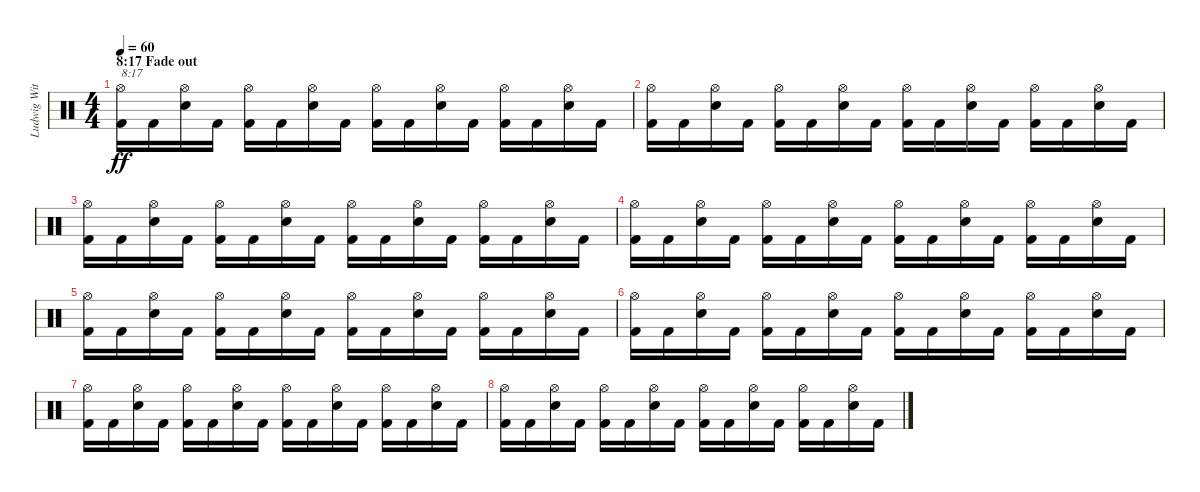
\track ("Ludwig Witt (Drums)" "Ludwig Wit") {instrument percussion}
\staff
\articulation defaults
\ts (4 4)
\section ("" "8:17 Fade out")
\tempo 60
\clef neutral
\ks c
("Hi-Hat (open)" "Kick (hit) 2").16{txt "8:17" dy ff volume 10} "Kick (hit) 2".16 ("Hi-Hat (open)" "Electric Snare (hit)").16 "Kick (hit) 2".16 ("Hi-Hat (open)" "Kick (hit) 2").16 "Kick (hit) 2".16 ("Hi-Hat (open)" "Electric Snare (hit)").16 "Kick (hit) 2".16 ("Hi-Hat (open)" "Kick (hit) 2").16 "Kick (hit) 2".16 ("Hi-Hat (open)" "Electric Snare (hit)").16 "Kick (hit) 2".16 ("Hi-Hat (open)" "Kick (hit) 2").16 "Kick (hit) 2".16 ("Hi-Hat (open)" "Electric Snare (hit)").16 "Kick (hit) 2".16 |
("Hi-Hat (open)" "Kick (hit) 2").16 "Kick (hit) 2".16 ("Hi-Hat (open)" "Electric Snare (hit)").16 "Kick (hit) 2".16 ("Hi-Hat (open)" "Kick (hit) 2").16 "Kick (hit) 2".16 ("Hi-Hat (open)" "Electric Snare (hit)").16 "Kick (hit) 2".16 ("Hi-Hat (open)" "Kick (hit) 2").16 "Kick (hit) 2".16 ("Hi-Hat (open)" "Electric Snare (hit)").16 "Kick (hit) 2".16 ("Hi-Hat (open)" "Kick (hit) 2").16 "Kick (hit) 2".16 ("Hi-Hat (open)" "Electric Snare (hit)").16 "Kick (hit) 2".16 |
("Hi-Hat (open)" "Kick (hit) 2").16 "Kick (hit) 2".16 ("Hi-Hat (open)" "Electric Snare (hit)").16 "Kick (hit) 2".16 ("Hi-Hat (open)" "Kick (hit) 2").16 "Kick (hit) 2".16 ("Hi-Hat (open)" "Electric Snare (hit)").16 "Kick (hit) 2".16 ("Hi-Hat (open)" "Kick (hit) 2").16 "Kick (hit) 2".16 ("Hi-Hat (open)" "Electric Snare (hit)").16 "Kick (hit) 2".16 ("Hi-Hat (open)" "Kick (hit) 2").16 "Kick (hit) 2".16 ("Hi-Hat (open)" "Electric Snare (hit)").16 "Kick (hit) 2".16 |
("Hi-Hat (open)" "Kick (hit) 2").16 "Kick (hit) 2".16 ("Hi-Hat (open)" "Electric Snare (hit)").16 "Kick (hit) 2".16 ("Hi-Hat (open)" "Kick (hit) 2").16 "Kick (hit) 2".16 ("Hi-Hat (open)" "Electric Snare (hit)").16 "Kick (hit) 2".16 ("Hi-Hat (open)" "Kick (hit) 2").16 "Kick (hit) 2".16 ("Hi-Hat (open)" "Electric Snare (hit)").16 "Kick (hit) 2".16 ("Hi-Hat (open)" "Kick (hit) 2").16 "Kick (hit) 2".16 ("Hi-Hat (open)" "Electric Snare (hit)").16 "Kick (hit) 2".16 |
("Hi-Hat (open)" "Kick (hit) 2").16 "Kick (hit) 2".16 ("Hi-Hat (open)" "Electric Snare (hit)").16 "Kick (hit) 2".16 ("Hi-Hat (open)" "Kick (hit) 2").16 "Kick (hit) 2".16 ("Hi-Hat (open)" "Electric Snare (hit)").16 "Kick (hit) 2".16 ("Hi-Hat (open)" "Kick (hit) 2").16 "Kick (hit) 2".16 ("Hi-Hat (open)" "Electric Snare (hit)").16 "Kick (hit) 2".16 ("Hi-Hat (open)" "Kick (hit) 2").16 "Kick (hit) 2".16 ("Hi-Hat (open)" "Electric Snare (hit)").16 "Kick (hit) 2".16 |
("Hi-Hat (open)" "Kick (hit) 2").16 "Kick (hit) 2".16 ("Hi-Hat (open)" "Electric Snare (hit)").16 "Kick (hit) 2".16 ("Hi-Hat (open)" "Kick (hit) 2").16 "Kick (hit) 2".16 ("Hi-Hat (open)" "Electric Snare (hit)").16 "Kick (hit) 2".16 ("Hi-Hat (open)" "Kick (hit) 2").16 "Kick (hit) 2".16 ("Hi-Hat (open)" "Electric Snare (hit)").16 "Kick (hit) 2".16 ("Hi-Hat (open)" "Kick (hit) 2").16 "Kick (hit) 2".16 ("Hi-Hat (open)" "Electric Snare (hit)").16 "Kick (hit) 2".16 |
("Hi-Hat (open)" "Kick (hit) 2").16 "Kick (hit) 2".16 ("Hi-Hat (open)" "Electric Snare (hit)").16 "Kick (hit) 2".16 ("Hi-Hat (open)" "Kick (hit) 2").16 "Kick (hit) 2".16 ("Hi-Hat (open)" "Electric Snare (hit)").16 "Kick (hit) 2".16 ("Hi-Hat (open)" "Kick (hit) 2").16 "Kick (hit) 2".16 ("Hi-Hat (open)" "Electric Snare (hit)").16 "Kick (hit) 2".16 ("Hi-Hat (open)" "Kick (hit) 2").16 "Kick (hit) 2".16 ("Hi-Hat (open)" "Electric Snare (hit)").16 "Kick (hit) 2".16 |
("Hi-Hat (open)" "Kick (hit) 2").16 "Kick (hit) 2".16 ("Hi-Hat (open)" "Electric Snare (hit)").16 "Kick (hit) 2".16 ("Hi-Hat (open)" "Kick (hit) 2").16 "Kick (hit) 2".16 ("Hi-Hat (open)" "Electric Snare (hit)").16 "Kick (hit) 2".16 ("Hi-Hat (open)" "Kick (hit) 2").16 "Kick (hit) 2".16 ("Hi-Hat (open)" "Electric Snare (hit)").16 "Kick (hit) 2".16 ("Hi-Hat (open)" "Kick (hit) 2").16 "Kick (hit) 2".16 ("Hi-Hat (open)" "Electric Snare (hit)").16 "Kick (hit) 2".16
